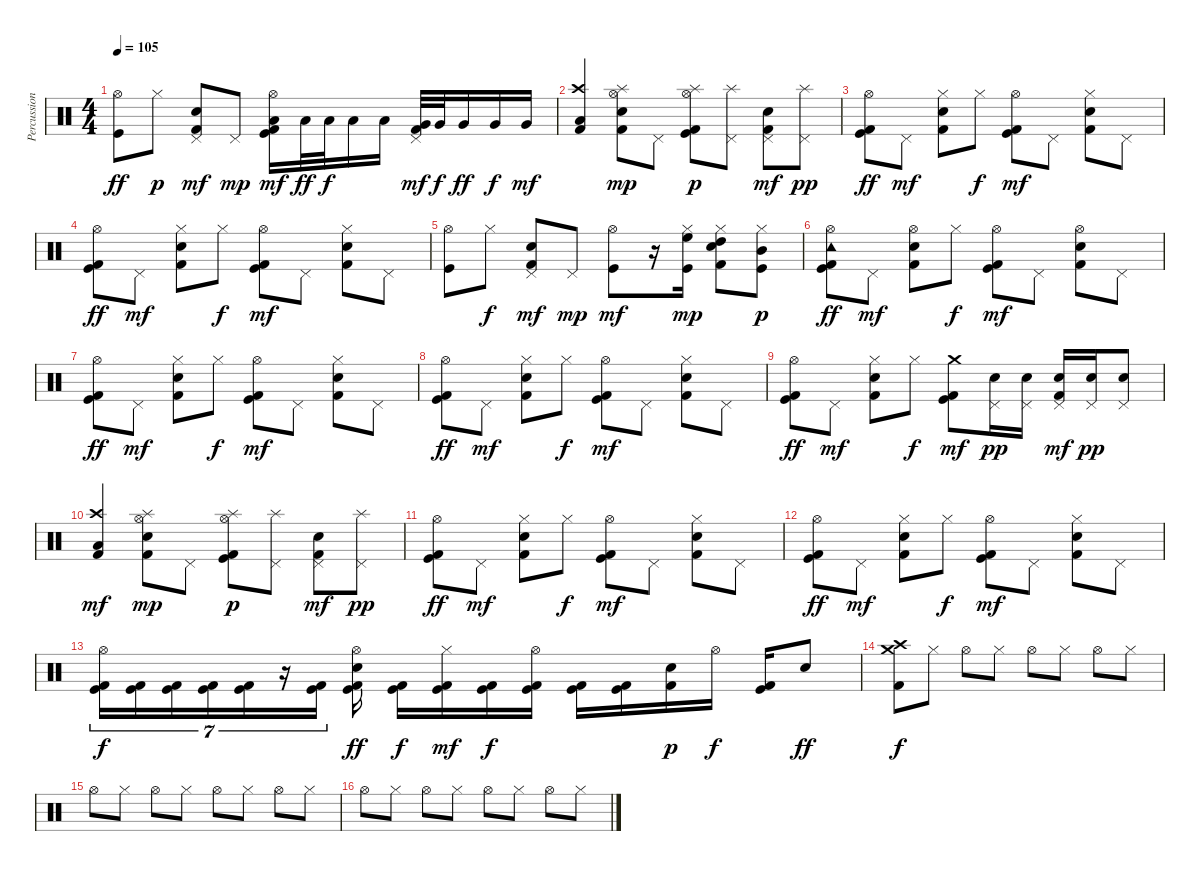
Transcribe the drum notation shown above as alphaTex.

\track ("Percussion" "Percussion") {instrument percussion}
\staff {score}
\articulation defaults
\ts (4 4)
\tempo 105
\clef neutral
\ks c
("Hi-Hat (open)" "Kick (hit)").8{dy ff} "Hi-Hat (closed)".8{dy p} ("Electric Snare (hit)" "Pedal Hi-Hat (hit)" "Kick (hit) 2").8{dy mf} "Pedal Hi-Hat (hit)".8{dy mp} ("Low Tom (hit)" "Hi-Hat (open)" "Kick (hit)" "Kick (hit) 2").16{dy mf} "Low Tom (hit)".32{dy ff} "Low Tom (hit)".32{dy f} "Low Tom (hit)".16 "Low Tom (hit)".16 ("Very Low Tom (hit)" "Pedal Hi-Hat (hit)" "Kick (hit) 2").32{dy mf} "Very Low Tom (hit)".32{dy f} "Very Low Tom (hit)".16{dy ff} "Very Low Tom (hit)".16{dy f} "Very Low Tom (hit)".16{dy mf} |
("Crash high (hit)" "Low Floor Tom (hit)" "Kick (hit) 2").4 ("Electric Snare (hit)" "Hi-Hat (open)" "Splash (hit)" "Kick (hit) 2").8{dy mp} "Pedal Hi-Hat (hit)".8 ("Hi-Hat (open)" "Splash (hit)" "Kick (hit)" "Kick (hit) 2").8{dy p} ("Pedal Hi-Hat (hit)" "Splash (hit)").8 ("Electric Snare (hit)" "Pedal Hi-Hat (hit)" "Kick (hit) 2").8{dy mf} ("Pedal Hi-Hat (hit)" "Splash (hit)").8{dy pp} |
("Hi-Hat (open)" "Kick (hit)" "Kick (hit) 2").8{dy ff} "Pedal Hi-Hat (hit)".8{dy mf} ("Electric Snare (hit)" "Hi-Hat (closed)" "Kick (hit) 2").8 "Hi-Hat (closed)".8{dy f} ("Hi-Hat (open)" "Kick (hit)" "Kick (hit) 2").8{dy mf} "Pedal Hi-Hat (hit)".8 ("Electric Snare (hit)" "Hi-Hat (closed)" "Kick (hit) 2").8 "Pedal Hi-Hat (hit)".8 |
("Hi-Hat (open)" "Kick (hit)" "Kick (hit) 2").8{dy ff} "Pedal Hi-Hat (hit)".8{dy mf} ("Electric Snare (hit)" "Hi-Hat (closed)" "Kick (hit) 2").8 "Hi-Hat (closed)".8{dy f} ("Hi-Hat (open)" "Kick (hit)" "Kick (hit) 2").8{dy mf} "Pedal Hi-Hat (hit)".8 ("Electric Snare (hit)" "Hi-Hat (closed)" "Kick (hit) 2").8 "Pedal Hi-Hat (hit)".8 |
("Hi-Hat (open)" "Kick (hit)").8 "Hi-Hat (closed)".8{dy f} ("Electric Snare (hit)" "Pedal Hi-Hat (hit)" "Kick (hit) 2").8{dy mf} "Pedal Hi-Hat (hit)".8{dy mp} ("Hi-Hat (open)" "Kick (hit)").8{dy mf} r.16 ("Hi-Hat (closed)" "High Floor Tom (hit)" "Kick (hit)").16{dy mp} ("Electric Snare (hit)" "Hi-Hat (closed)" "High Tom (hit)" "Kick (hit) 2").8 ("Hi-Hat (closed)" "Mid Tom (hit)" "Kick (hit)").8{dy p} |
("Tambourine (hit)" "Hi-Hat (open)" "Kick (hit)" "Kick (hit) 2").8{dy ff} "Pedal Hi-Hat (hit)".8{dy mf} ("Electric Snare (hit)" "Hi-Hat (open)" "Kick (hit) 2").8 "Hi-Hat (closed)".8{dy f} ("Hi-Hat (open)" "Kick (hit)" "Kick (hit) 2").8{dy mf} "Pedal Hi-Hat (hit)".8 ("Electric Snare (hit)" "Hi-Hat (open)" "Kick (hit) 2").8 "Pedal Hi-Hat (hit)".8 |
("Hi-Hat (open)" "Kick (hit)" "Kick (hit) 2").8{dy ff} "Pedal Hi-Hat (hit)".8{dy mf} ("Electric Snare (hit)" "Hi-Hat (closed)" "Kick (hit) 2").8 "Hi-Hat (closed)".8{dy f} ("Hi-Hat (open)" "Kick (hit)" "Kick (hit) 2").8{dy mf} "Pedal Hi-Hat (hit)".8 ("Electric Snare (hit)" "Hi-Hat (closed)" "Kick (hit) 2").8 "Pedal Hi-Hat (hit)".8 |
("Hi-Hat (open)" "Kick (hit)" "Kick (hit) 2").8{dy ff} "Pedal Hi-Hat (hit)".8{dy mf} ("Electric Snare (hit)" "Hi-Hat (closed)" "Kick (hit) 2").8 "Hi-Hat (closed)".8{dy f} ("Hi-Hat (open)" "Kick (hit)" "Kick (hit) 2").8{dy mf} "Pedal Hi-Hat (hit)".8 ("Electric Snare (hit)" "Hi-Hat (closed)" "Kick (hit) 2").8 "Pedal Hi-Hat (hit)".8 |
("Hi-Hat (open)" "Kick (hit)" "Kick (hit) 2").8{dy ff} "Pedal Hi-Hat (hit)".8{dy mf} ("Electric Snare (hit)" "Hi-Hat (closed)" "Kick (hit) 2").8 "Hi-Hat (closed)".8{dy f} ("Crash medium (hit)" "Kick (hit)" "Kick (hit) 2").8{dy mf} ("Electric Snare (hit)" "Pedal Hi-Hat (hit)").16{dy pp} ("Electric Snare (hit)" "Pedal Hi-Hat (hit)").16 ("Electric Snare (hit)" "Pedal Hi-Hat (hit)" "Kick (hit) 2").16{dy mf} ("Electric Snare (hit)" "Pedal Hi-Hat (hit)").16{dy pp} ("Electric Snare (hit)" "Pedal Hi-Hat (hit)").8 |
("Crash high (hit)" "Low Floor Tom (hit)" "Kick (hit) 2").4{dy mf} ("Electric Snare (hit)" "Hi-Hat (open)" "Splash (hit)" "Kick (hit) 2").8{dy mp} "Pedal Hi-Hat (hit)".8 ("Hi-Hat (open)" "Splash (hit)" "Kick (hit)" "Kick (hit) 2").8{dy p} ("Pedal Hi-Hat (hit)" "Splash (hit)").8 ("Electric Snare (hit)" "Pedal Hi-Hat (hit)" "Kick (hit) 2").8{dy mf} ("Pedal Hi-Hat (hit)" "Splash (hit)").8{dy pp} |
("Hi-Hat (open)" "Kick (hit)" "Kick (hit) 2").8{dy ff} "Pedal Hi-Hat (hit)".8{dy mf} ("Electric Snare (hit)" "Hi-Hat (closed)" "Kick (hit) 2").8 "Hi-Hat (closed)".8{dy f} ("Hi-Hat (open)" "Kick (hit)" "Kick (hit) 2").8{dy mf} "Pedal Hi-Hat (hit)".8 ("Electric Snare (hit)" "Hi-Hat (closed)" "Kick (hit) 2").8 "Pedal Hi-Hat (hit)".8 |
("Hi-Hat (open)" "Kick (hit)" "Kick (hit) 2").8{dy ff} "Pedal Hi-Hat (hit)".8{dy mf} ("Electric Snare (hit)" "Hi-Hat (closed)" "Kick (hit) 2").8 "Hi-Hat (closed)".8{dy f} ("Hi-Hat (open)" "Kick (hit)" "Kick (hit) 2").8{dy mf} "Pedal Hi-Hat (hit)".8 ("Electric Snare (hit)" "Hi-Hat (closed)" "Kick (hit) 2").8 "Pedal Hi-Hat (hit)".8 |
("Hi-Hat (open)" "Kick (hit)" "Kick (hit) 2").16{tu (7 4) dy f} ("Kick (hit)" "Kick (hit) 2").16{tu (7 4)} ("Kick (hit)" "Kick (hit) 2").16{tu (7 4)} ("Kick (hit)" "Kick (hit) 2").16{tu (7 4)} ("Kick (hit)" "Kick (hit) 2").16{tu (7 4)} r.16{tu (7 4)} ("Kick (hit)" "Kick (hit) 2").16{tu (7 4)} ("Hi-Hat (open)" "Electric Snare (hit)" "Kick (hit)" "Kick (hit) 2").16{dy ff} ("Kick (hit)" "Kick (hit) 2").16{dy f} ("Hi-Hat (closed)" "Kick (hit)" "Kick (hit) 2").16{dy mf} ("Kick (hit)" "Kick (hit) 2").16{dy f} ("Hi-Hat (open)" "Kick (hit)" "Kick (hit) 2").16 ("Kick (hit)" "Kick (hit) 2").16 ("Kick (hit)" "Kick (hit) 2").16 ("Electric Snare (hit)" "Kick (hit) 2").16{dy p} "Hi-Hat (open)".16{dy f} ("Kick (hit)" "Kick (hit) 2").16 "Electric Snare (hit)".8{dy ff} |
("Crash high (hit)" "Crash medium (hit)" "Kick (hit) 2").8{dy f} "Hi-Hat (closed)".8 "Hi-Hat (open)".8 "Hi-Hat (closed)".8 "Hi-Hat (open)".8 "Hi-Hat (closed)".8 "Hi-Hat (open)".8 "Hi-Hat (closed)".8 |
"Hi-Hat (open)".8 "Hi-Hat (closed)".8 "Hi-Hat (open)".8 "Hi-Hat (closed)".8 "Hi-Hat (open)".8 "Hi-Hat (closed)".8 "Hi-Hat (open)".8 "Hi-Hat (closed)".8 |
"Hi-Hat (open)".8 "Hi-Hat (closed)".8 "Hi-Hat (open)".8 "Hi-Hat (closed)".8 "Hi-Hat (open)".8 "Hi-Hat (closed)".8 "Hi-Hat (open)".8 "Hi-Hat (closed)".8
